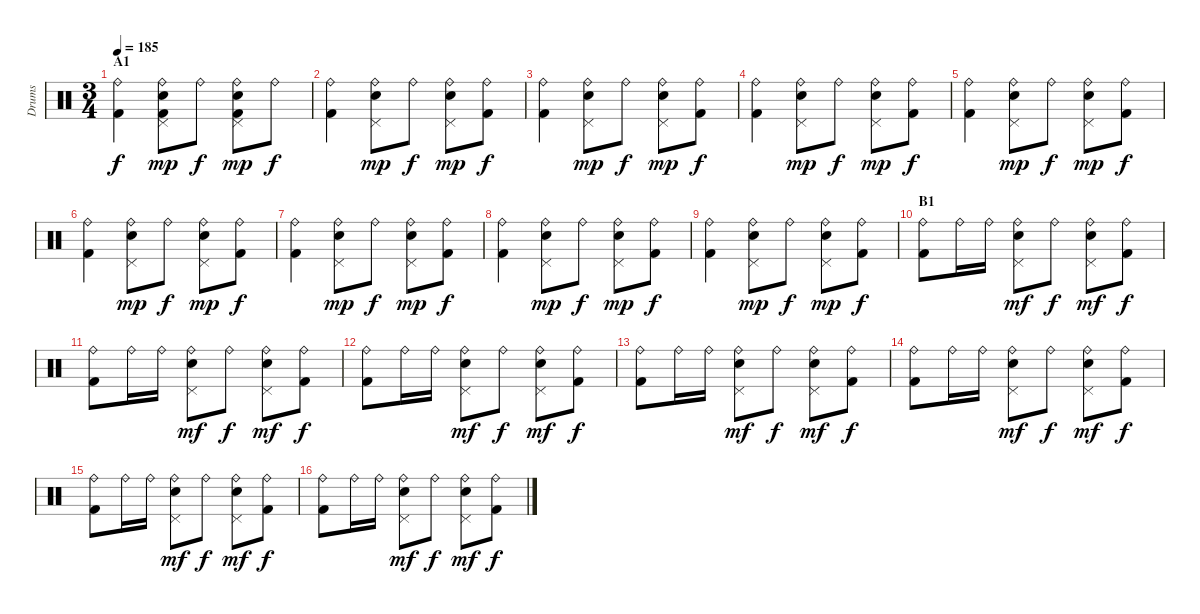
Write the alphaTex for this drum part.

\track ("Drums" "Drums") {instrument percussion}
\staff {score}
\articulation defaults
\ts (3 4)
\section ("" "A1")
\tempo 185
\clef neutral
\ks c
("Ride (bell)" "Kick (hit) 2").4{dy f} ("Ride (bell)" "Pedal Hi-Hat (hit)" "Electric Snare (hit)" "Kick (hit) 2").8{dy mp} "Ride (bell)".8{dy f} ("Ride (bell)" "Pedal Hi-Hat (hit)" "Electric Snare (hit)" "Kick (hit) 2").8{dy mp} "Ride (bell)".8{dy f} |
("Ride (bell)" "Kick (hit) 2").4 ("Ride (bell)" "Pedal Hi-Hat (hit)" "Electric Snare (hit)").8{dy mp} "Ride (bell)".8{dy f} ("Ride (bell)" "Pedal Hi-Hat (hit)" "Electric Snare (hit)").8{dy mp} ("Ride (bell)" "Kick (hit) 2").8{dy f} |
("Ride (bell)" "Kick (hit) 2").4 ("Ride (bell)" "Pedal Hi-Hat (hit)" "Electric Snare (hit)").8{dy mp} "Ride (bell)".8{dy f} ("Ride (bell)" "Pedal Hi-Hat (hit)" "Electric Snare (hit)").8{dy mp} ("Ride (bell)" "Kick (hit) 2").8{dy f} |
("Ride (bell)" "Kick (hit) 2").4 ("Ride (bell)" "Pedal Hi-Hat (hit)" "Electric Snare (hit)").8{dy mp} "Ride (bell)".8{dy f} ("Ride (bell)" "Pedal Hi-Hat (hit)" "Electric Snare (hit)").8{dy mp} ("Ride (bell)" "Kick (hit) 2").8{dy f} |
("Ride (bell)" "Kick (hit) 2").4 ("Ride (bell)" "Pedal Hi-Hat (hit)" "Electric Snare (hit)").8{dy mp} "Ride (bell)".8{dy f} ("Ride (bell)" "Pedal Hi-Hat (hit)" "Electric Snare (hit)").8{dy mp} ("Ride (bell)" "Kick (hit) 2").8{dy f} |
("Ride (bell)" "Kick (hit) 2").4 ("Ride (bell)" "Pedal Hi-Hat (hit)" "Electric Snare (hit)").8{dy mp} "Ride (bell)".8{dy f} ("Ride (bell)" "Pedal Hi-Hat (hit)" "Electric Snare (hit)").8{dy mp} ("Ride (bell)" "Kick (hit) 2").8{dy f} |
("Ride (bell)" "Kick (hit) 2").4 ("Ride (bell)" "Pedal Hi-Hat (hit)" "Electric Snare (hit)").8{dy mp} "Ride (bell)".8{dy f} ("Ride (bell)" "Pedal Hi-Hat (hit)" "Electric Snare (hit)").8{dy mp} ("Ride (bell)" "Kick (hit) 2").8{dy f} |
("Ride (bell)" "Kick (hit) 2").4 ("Ride (bell)" "Pedal Hi-Hat (hit)" "Electric Snare (hit)").8{dy mp} "Ride (bell)".8{dy f} ("Ride (bell)" "Pedal Hi-Hat (hit)" "Electric Snare (hit)").8{dy mp} ("Ride (bell)" "Kick (hit) 2").8{dy f} |
("Ride (bell)" "Kick (hit) 2").4 ("Ride (bell)" "Pedal Hi-Hat (hit)" "Electric Snare (hit)").8{dy mp} "Ride (bell)".8{dy f} ("Ride (bell)" "Pedal Hi-Hat (hit)" "Electric Snare (hit)").8{dy mp} ("Ride (bell)" "Kick (hit) 2").8{dy f} |
\section ("" "B1")
("Ride (bell)" "Kick (hit) 2").8 "Ride (bell)".16 "Ride (bell)".16 ("Ride (bell)" "Pedal Hi-Hat (hit)" "Electric Snare (hit)").8{dy mf} "Ride (bell)".8{dy f} ("Ride (bell)" "Pedal Hi-Hat (hit)" "Electric Snare (hit)").8{dy mf} ("Ride (bell)" "Kick (hit) 2").8{dy f} |
("Ride (bell)" "Kick (hit) 2").8 "Ride (bell)".16 "Ride (bell)".16 ("Ride (bell)" "Pedal Hi-Hat (hit)" "Electric Snare (hit)").8{dy mf} "Ride (bell)".8{dy f} ("Ride (bell)" "Pedal Hi-Hat (hit)" "Electric Snare (hit)").8{dy mf} ("Ride (bell)" "Kick (hit) 2").8{dy f} |
("Ride (bell)" "Kick (hit) 2").8 "Ride (bell)".16 "Ride (bell)".16 ("Ride (bell)" "Pedal Hi-Hat (hit)" "Electric Snare (hit)").8{dy mf} "Ride (bell)".8{dy f} ("Ride (bell)" "Pedal Hi-Hat (hit)" "Electric Snare (hit)").8{dy mf} ("Ride (bell)" "Kick (hit) 2").8{dy f} |
("Ride (bell)" "Kick (hit) 2").8 "Ride (bell)".16 "Ride (bell)".16 ("Ride (bell)" "Pedal Hi-Hat (hit)" "Electric Snare (hit)").8{dy mf} "Ride (bell)".8{dy f} ("Ride (bell)" "Pedal Hi-Hat (hit)" "Electric Snare (hit)").8{dy mf} ("Ride (bell)" "Kick (hit) 2").8{dy f} |
("Ride (bell)" "Kick (hit) 2").8 "Ride (bell)".16 "Ride (bell)".16 ("Ride (bell)" "Pedal Hi-Hat (hit)" "Electric Snare (hit)").8{dy mf} "Ride (bell)".8{dy f} ("Ride (bell)" "Pedal Hi-Hat (hit)" "Electric Snare (hit)").8{dy mf} ("Ride (bell)" "Kick (hit) 2").8{dy f} |
("Ride (bell)" "Kick (hit) 2").8 "Ride (bell)".16 "Ride (bell)".16 ("Ride (bell)" "Pedal Hi-Hat (hit)" "Electric Snare (hit)").8{dy mf} "Ride (bell)".8{dy f} ("Ride (bell)" "Pedal Hi-Hat (hit)" "Electric Snare (hit)").8{dy mf} ("Ride (bell)" "Kick (hit) 2").8{dy f} |
("Ride (bell)" "Kick (hit) 2").8 "Ride (bell)".16 "Ride (bell)".16 ("Ride (bell)" "Pedal Hi-Hat (hit)" "Electric Snare (hit)").8{dy mf} "Ride (bell)".8{dy f} ("Ride (bell)" "Pedal Hi-Hat (hit)" "Electric Snare (hit)").8{dy mf} ("Ride (bell)" "Kick (hit) 2").8{dy f}
